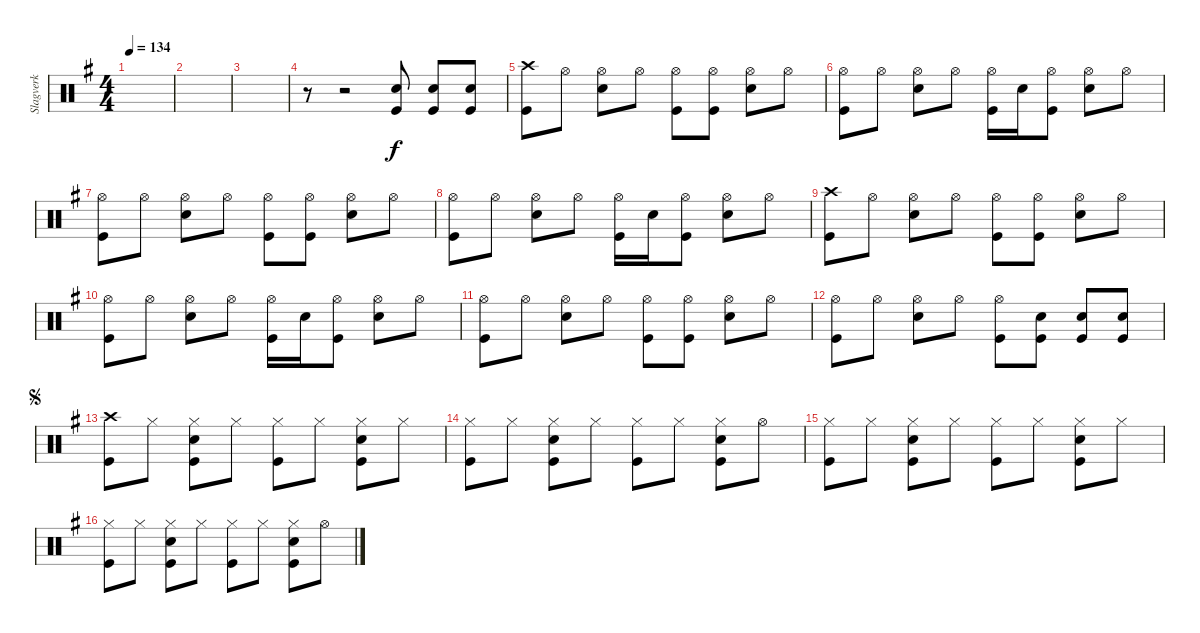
\track ("Slagverk" "Slagverk") {instrument percussion}
\staff {score}
\articulation defaults
\ts (4 4)
\tempo 134
\clef neutral
\ks g
|
|
|
r.8 r.2 ("Electric Snare (hit)" "Kick (hit)").8 ("Electric Snare (hit)" "Kick (hit)").8 ("Electric Snare (hit)" "Kick (hit)").8 |
("Crash high (hit)" "Kick (hit)").8 "Hi-Hat (open)".8 ("Hi-Hat (open)" "Electric Snare (hit)").8 "Hi-Hat (open)".8 ("Hi-Hat (open)" "Kick (hit)").8 ("Hi-Hat (open)" "Kick (hit)").8 ("Hi-Hat (open)" "Electric Snare (hit)").8 "Hi-Hat (open)".8 |
("Hi-Hat (open)" "Kick (hit)").8 "Hi-Hat (open)".8 ("Hi-Hat (open)" "Electric Snare (hit)").8 "Hi-Hat (open)".8 ("Hi-Hat (open)" "Kick (hit)").16 "Electric Snare (hit)".16 ("Hi-Hat (open)" "Kick (hit)").8 ("Hi-Hat (open)" "Electric Snare (hit)").8 "Hi-Hat (open)".8 |
("Hi-Hat (open)" "Kick (hit)").8 "Hi-Hat (open)".8 ("Hi-Hat (open)" "Electric Snare (hit)").8 "Hi-Hat (open)".8 ("Hi-Hat (open)" "Kick (hit)").8 ("Hi-Hat (open)" "Kick (hit)").8 ("Hi-Hat (open)" "Electric Snare (hit)").8 "Hi-Hat (open)".8 |
("Hi-Hat (open)" "Kick (hit)").8 "Hi-Hat (open)".8 ("Hi-Hat (open)" "Electric Snare (hit)").8 "Hi-Hat (open)".8 ("Hi-Hat (open)" "Kick (hit)").16 "Electric Snare (hit)".16 ("Hi-Hat (open)" "Kick (hit)").8 ("Hi-Hat (open)" "Electric Snare (hit)").8 "Hi-Hat (open)".8 |
("Crash high (hit)" "Kick (hit)").8 "Hi-Hat (open)".8 ("Hi-Hat (open)" "Electric Snare (hit)").8 "Hi-Hat (open)".8 ("Hi-Hat (open)" "Kick (hit)").8 ("Hi-Hat (open)" "Kick (hit)").8 ("Hi-Hat (open)" "Electric Snare (hit)").8 "Hi-Hat (open)".8 |
("Hi-Hat (open)" "Kick (hit)").8 "Hi-Hat (open)".8 ("Hi-Hat (open)" "Electric Snare (hit)").8 "Hi-Hat (open)".8 ("Hi-Hat (open)" "Kick (hit)").16 "Electric Snare (hit)".16 ("Hi-Hat (open)" "Kick (hit)").8 ("Hi-Hat (open)" "Electric Snare (hit)").8 "Hi-Hat (open)".8 |
("Hi-Hat (open)" "Kick (hit)").8 "Hi-Hat (open)".8 ("Hi-Hat (open)" "Electric Snare (hit)").8 "Hi-Hat (open)".8 ("Hi-Hat (open)" "Kick (hit)").8 ("Hi-Hat (open)" "Kick (hit)").8 ("Hi-Hat (open)" "Electric Snare (hit)").8 "Hi-Hat (open)".8 |
("Hi-Hat (open)" "Kick (hit)").8 "Hi-Hat (open)".8 ("Hi-Hat (open)" "Electric Snare (hit)").8 "Hi-Hat (open)".8 ("Hi-Hat (open)" "Kick (hit)").8 ("Electric Snare (hit)" "Kick (hit)").8 ("Electric Snare (hit)" "Kick (hit)").8 ("Electric Snare (hit)" "Kick (hit)").8 |
\jump segno
("Crash high (hit)" "Kick (hit)").8 "Hi-Hat (closed)".8 ("Hi-Hat (closed)" "Electric Snare (hit)" "Kick (hit)").8 "Hi-Hat (closed)".8 ("Hi-Hat (closed)" "Kick (hit)").8 "Hi-Hat (closed)".8 ("Hi-Hat (closed)" "Electric Snare (hit)" "Kick (hit)").8 "Hi-Hat (closed)".8 |
("Hi-Hat (closed)" "Kick (hit)").8 "Hi-Hat (closed)".8 ("Hi-Hat (closed)" "Electric Snare (hit)" "Kick (hit)").8 "Hi-Hat (closed)".8 ("Hi-Hat (closed)" "Kick (hit)").8 "Hi-Hat (closed)".8 ("Hi-Hat (closed)" "Electric Snare (hit)" "Kick (hit)").8 "Hi-Hat (open)".8 |
("Hi-Hat (closed)" "Kick (hit)").8 "Hi-Hat (closed)".8 ("Hi-Hat (closed)" "Electric Snare (hit)" "Kick (hit)").8 "Hi-Hat (closed)".8 ("Hi-Hat (closed)" "Kick (hit)").8 "Hi-Hat (closed)".8 ("Hi-Hat (closed)" "Electric Snare (hit)" "Kick (hit)").8 "Hi-Hat (closed)".8 |
("Hi-Hat (closed)" "Kick (hit)").8 "Hi-Hat (closed)".8 ("Hi-Hat (closed)" "Electric Snare (hit)" "Kick (hit)").8 "Hi-Hat (closed)".8 ("Hi-Hat (closed)" "Kick (hit)").8 "Hi-Hat (closed)".8 ("Hi-Hat (closed)" "Electric Snare (hit)" "Kick (hit)").8 "Hi-Hat (open)".8
